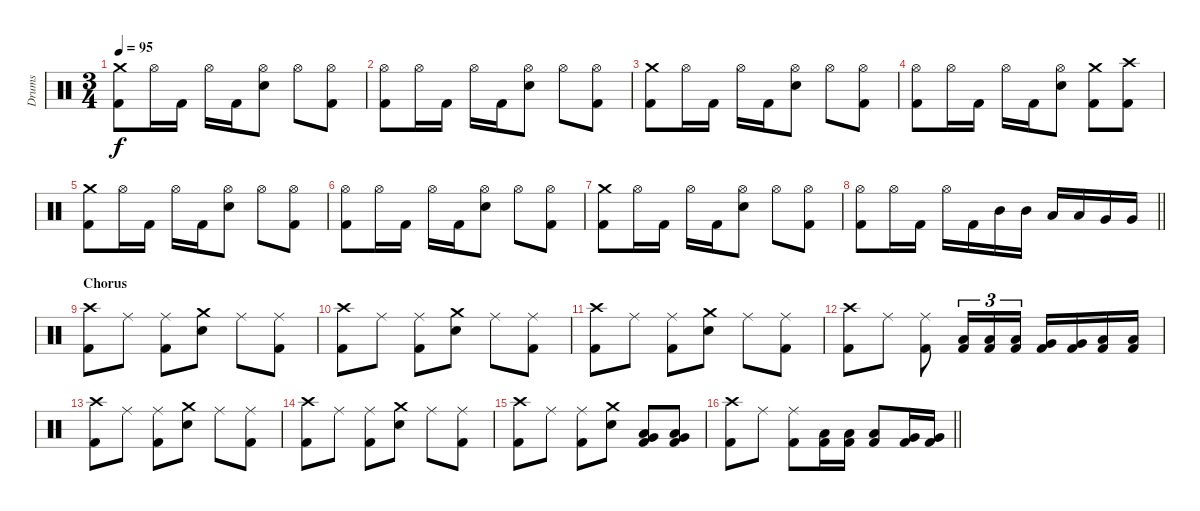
\track ("Drums" "Drums") {instrument percussion}
\staff {score}
\articulation defaults
\ts (3 4)
\tempo 95
\clef neutral
\ks c
("Crash medium (hit)" "Kick (hit) 2").8{dy f} "Hi-Hat (open)".16 "Kick (hit) 2".16 "Hi-Hat (open)".16 "Kick (hit) 2".16 ("Hi-Hat (open)" "Electric Snare (hit)").8 "Hi-Hat (open)".8 ("Hi-Hat (open)" "Kick (hit) 2").8 |
("Hi-Hat (open)" "Kick (hit) 2").8 "Hi-Hat (open)".16 "Kick (hit) 2".16 "Hi-Hat (open)".16 "Kick (hit) 2".16 ("Hi-Hat (open)" "Electric Snare (hit)").8 "Hi-Hat (open)".8 ("Hi-Hat (open)" "Kick (hit) 2").8 |
("Crash medium (hit)" "Kick (hit) 2").8 "Hi-Hat (open)".16 "Kick (hit) 2".16 "Hi-Hat (open)".16 "Kick (hit) 2".16 ("Hi-Hat (open)" "Electric Snare (hit)").8 "Hi-Hat (open)".8 ("Hi-Hat (open)" "Kick (hit) 2").8 |
("Hi-Hat (open)" "Kick (hit) 2").8 "Hi-Hat (open)".16 "Kick (hit) 2".16 "Hi-Hat (open)".16 "Kick (hit) 2".16 ("Hi-Hat (open)" "Electric Snare (hit)").8 ("Crash medium (hit)" "Kick (hit) 2").8 ("Crash high (hit)" "Kick (hit) 2").8 |
("Crash medium (hit)" "Kick (hit) 2").8 "Hi-Hat (open)".16 "Kick (hit) 2".16 "Hi-Hat (open)".16 "Kick (hit) 2".16 ("Hi-Hat (open)" "Electric Snare (hit)").8 "Hi-Hat (open)".8 ("Hi-Hat (open)" "Kick (hit) 2").8 |
("Hi-Hat (open)" "Kick (hit) 2").8 "Hi-Hat (open)".16 "Kick (hit) 2".16 "Hi-Hat (open)".16 "Kick (hit) 2".16 ("Hi-Hat (open)" "Electric Snare (hit)").8 "Hi-Hat (open)".8 ("Hi-Hat (open)" "Kick (hit) 2").8 |
("Crash medium (hit)" "Kick (hit) 2").8 "Hi-Hat (open)".16 "Kick (hit) 2".16 "Hi-Hat (open)".16 "Kick (hit) 2".16 ("Hi-Hat (open)" "Electric Snare (hit)").8 "Hi-Hat (open)".8 ("Hi-Hat (open)" "Kick (hit) 2").8 |
\barLineRight lightlight
("Hi-Hat (open)" "Kick (hit) 2").8 "Hi-Hat (open)".16 "Kick (hit) 2".16 "Hi-Hat (open)".16 "Kick (hit) 2".16 "Mid Tom (hit)".16 "Mid Tom (hit)".16 "Low Tom (hit)".16 "Low Tom (hit)".16 "Very Low Tom (hit)".16 "Very Low Tom (hit)".16 |
\section ("" "Chorus")
("Crash high (hit)" "Kick (hit) 2").8 "Ride (middle)".8 ("Ride (middle)" "Kick (hit) 2").8 ("Crash medium (hit)" "Electric Snare (hit)").8 "Ride (middle)".8 ("Ride (middle)" "Kick (hit) 2").8 |
("Crash high (hit)" "Kick (hit) 2").8 "Ride (middle)".8 ("Ride (middle)" "Kick (hit) 2").8 ("Crash medium (hit)" "Electric Snare (hit)").8 "Ride (middle)".8 ("Ride (middle)" "Kick (hit) 2").8 |
("Crash high (hit)" "Kick (hit) 2").8 "Ride (middle)".8 ("Ride (middle)" "Kick (hit) 2").8 ("Crash medium (hit)" "Electric Snare (hit)").8 "Ride (middle)".8 ("Ride (middle)" "Kick (hit) 2").8 |
("Crash high (hit)" "Kick (hit) 2").8 "Ride (middle)".8 ("Ride (middle)" "Kick (hit) 2").8 ("Low Tom (hit)" "Kick (hit) 2").16{tu (3 2)} ("Low Tom (hit)" "Kick (hit) 2").16{tu (3 2)} ("Low Tom (hit)" "Kick (hit) 2").16{tu (3 2)} ("Very Low Tom (hit)" "Kick (hit) 2").16 ("Very Low Tom (hit)" "Kick (hit) 2").16 ("Low Floor Tom (hit)" "Kick (hit) 2").16 ("Low Floor Tom (hit)" "Kick (hit) 2").16 |
("Crash high (hit)" "Kick (hit) 2").8 "Ride (middle)".8 ("Ride (middle)" "Kick (hit) 2").8 ("Crash medium (hit)" "Electric Snare (hit)").8 "Ride (middle)".8 ("Ride (middle)" "Kick (hit) 2").8 |
("Crash high (hit)" "Kick (hit) 2").8 "Ride (middle)".8 ("Ride (middle)" "Kick (hit) 2").8 ("Crash medium (hit)" "Electric Snare (hit)").8 "Ride (middle)".8 ("Ride (middle)" "Kick (hit) 2").8 |
("Crash high (hit)" "Kick (hit) 2").8 "Ride (middle)".8 ("Ride (middle)" "Kick (hit) 2").8 ("Crash medium (hit)" "Electric Snare (hit)").8 ("Low Tom (hit)" "Very Low Tom (hit)" "Kick (hit) 2").8 ("Low Tom (hit)" "Very Low Tom (hit)" "Kick (hit) 2").8 |
\barLineRight lightlight
("Crash high (hit)" "Kick (hit) 2").8 "Ride (middle)".8 ("Ride (middle)" "Kick (hit) 2").8 ("Low Tom (hit)" "Kick (hit) 2").16 ("Low Tom (hit)" "Kick (hit) 2").16 ("Low Tom (hit)" "Kick (hit) 2").8 ("Very Low Tom (hit)" "Kick (hit) 2").16 ("Very Low Tom (hit)" "Kick (hit) 2").16
